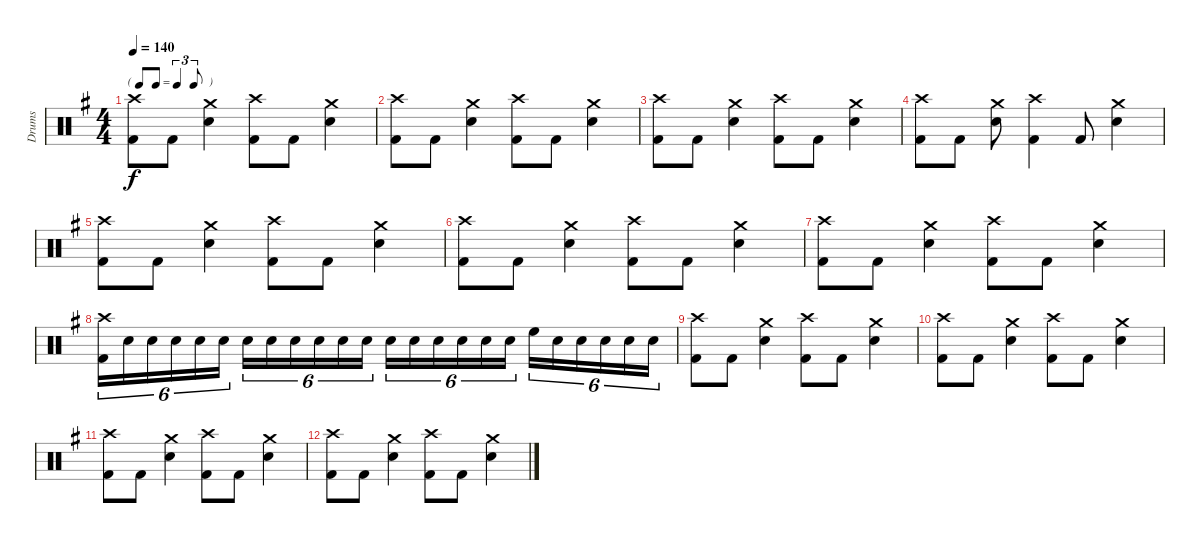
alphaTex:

\track ("Drums" "Drums") {instrument percussion}
\staff {score}
\articulation defaults
\ts (4 4)
\tf triplet8th
\tempo 140
\clef neutral
\ks eminor
("Kick (hit) 2" "Crash high (hit)").8{dy f} "Kick (hit) 2".8 ("Snare (hit) 2" "Crash medium (hit)").4 ("Kick (hit) 2" "Crash high (hit)").8 "Kick (hit) 2".8 ("Snare (hit) 2" "Crash medium (hit)").4 |
("Kick (hit) 2" "Crash high (hit)").8 "Kick (hit) 2".8 ("Snare (hit) 2" "Crash medium (hit)").4 ("Kick (hit) 2" "Crash high (hit)").8 "Kick (hit) 2".8 ("Snare (hit) 2" "Crash medium (hit)").4 |
("Kick (hit) 2" "Crash high (hit)").8 "Kick (hit) 2".8 ("Snare (hit) 2" "Crash medium (hit)").4 ("Kick (hit) 2" "Crash high (hit)").8 "Kick (hit) 2".8 ("Snare (hit) 2" "Crash medium (hit)").4 |
("Kick (hit) 2" "Crash high (hit)").8 "Kick (hit) 2".8 ("Snare (hit) 2" "Crash medium (hit)").8 ("Kick (hit) 2" "Crash high (hit)").4 "Kick (hit) 2".8 ("Snare (hit) 2" "Crash medium (hit)").4 |
("Kick (hit) 2" "Crash high (hit)").8 "Kick (hit) 2".8 ("Snare (hit) 2" "Crash medium (hit)").4 ("Kick (hit) 2" "Crash high (hit)").8 "Kick (hit) 2".8 ("Snare (hit) 2" "Crash medium (hit)").4 |
("Kick (hit) 2" "Crash high (hit)").8 "Kick (hit) 2".8 ("Snare (hit) 2" "Crash medium (hit)").4 ("Kick (hit) 2" "Crash high (hit)").8 "Kick (hit) 2".8 ("Snare (hit) 2" "Crash medium (hit)").4 |
("Kick (hit) 2" "Crash high (hit)").8 "Kick (hit) 2".8 ("Snare (hit) 2" "Crash medium (hit)").4 ("Kick (hit) 2" "Crash high (hit)").8 "Kick (hit) 2".8 ("Snare (hit) 2" "Crash medium (hit)").4 |
("Kick (hit) 2" "Crash high (hit)").16{tu (6 4)} "Snare (hit) 2".16{tu (6 4)} "Snare (hit) 2".16{tu (6 4)} "Snare (hit) 2".16{tu (6 4)} "Snare (hit) 2".16{tu (6 4)} "Snare (hit) 2".16{tu (6 4)} "Snare (hit) 2".16{tu (6 4)} "Snare (hit) 2".16{tu (6 4)} "Snare (hit) 2".16{tu (6 4)} "Snare (hit) 2".16{tu (6 4)} "Snare (hit) 2".16{tu (6 4)} "Snare (hit) 2".16{tu (6 4)} "Snare (hit) 2".16{tu (6 4)} "Snare (hit) 2".16{tu (6 4)} "Snare (hit) 2".16{tu (6 4)} "Snare (hit) 2".16{tu (6 4)} "Snare (hit) 2".16{tu (6 4)} "Snare (hit) 2".16{tu (6 4)} "High Floor Tom (hit)".16{tu (6 4)} "Snare (hit) 2".16{tu (6 4)} "Snare (hit) 2".16{tu (6 4)} "Snare (hit) 2".16{tu (6 4)} "Snare (hit) 2".16{tu (6 4)} "Snare (hit) 2".16{tu (6 4)} |
("Kick (hit) 2" "Crash high (hit)").8 "Kick (hit) 2".8 ("Snare (hit) 2" "Crash medium (hit)").4 ("Kick (hit) 2" "Crash high (hit)").8 "Kick (hit) 2".8 ("Snare (hit) 2" "Crash medium (hit)").4 |
("Kick (hit) 2" "Crash high (hit)").8 "Kick (hit) 2".8 ("Snare (hit) 2" "Crash medium (hit)").4 ("Kick (hit) 2" "Crash high (hit)").8 "Kick (hit) 2".8 ("Snare (hit) 2" "Crash medium (hit)").4 |
("Kick (hit) 2" "Crash high (hit)").8 "Kick (hit) 2".8 ("Snare (hit) 2" "Crash medium (hit)").4 ("Kick (hit) 2" "Crash high (hit)").8 "Kick (hit) 2".8 ("Snare (hit) 2" "Crash medium (hit)").4 |
("Kick (hit) 2" "Crash high (hit)").8 "Kick (hit) 2".8 ("Snare (hit) 2" "Crash medium (hit)").4 ("Kick (hit) 2" "Crash high (hit)").8 "Kick (hit) 2".8 ("Snare (hit) 2" "Crash medium (hit)").4
